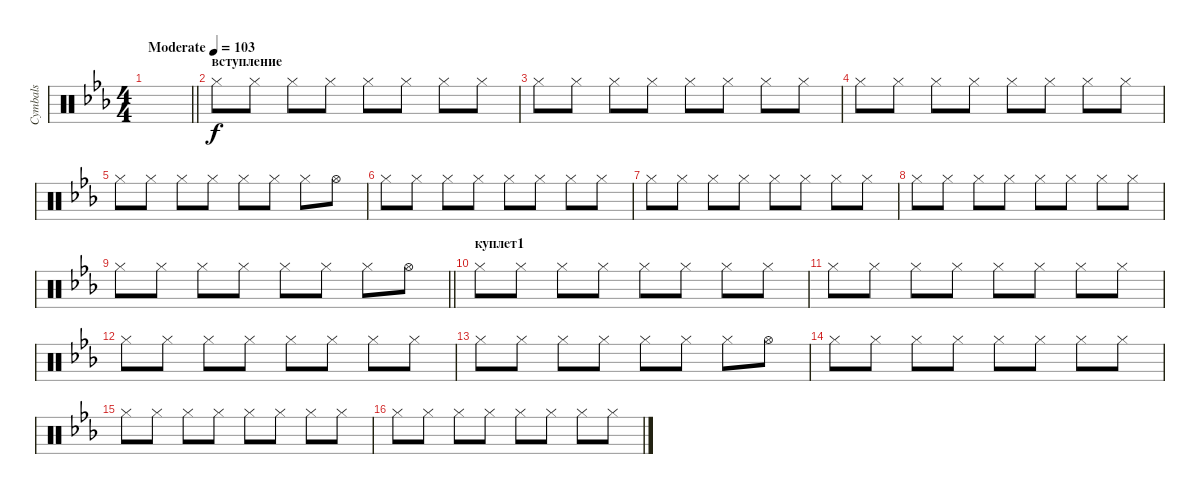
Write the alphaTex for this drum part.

\track ("Cymbals" "Cymbals") {instrument percussion}
\staff {score}
\articulation defaults
\ts (4 4)
\tempo (103 "Moderate")
\clef neutral
\barLineRight lightlight
\ks cminor
|
\section ("" "вступление")
"Hi-Hat (closed)".8 "Hi-Hat (closed)".8 "Hi-Hat (closed)".8 "Hi-Hat (closed)".8 "Hi-Hat (closed)".8 "Hi-Hat (closed)".8 "Hi-Hat (closed)".8 "Hi-Hat (closed)".8 |
"Hi-Hat (closed)".8 "Hi-Hat (closed)".8 "Hi-Hat (closed)".8 "Hi-Hat (closed)".8 "Hi-Hat (closed)".8 "Hi-Hat (closed)".8 "Hi-Hat (closed)".8 "Hi-Hat (closed)".8 |
"Hi-Hat (closed)".8 "Hi-Hat (closed)".8 "Hi-Hat (closed)".8 "Hi-Hat (closed)".8 "Hi-Hat (closed)".8 "Hi-Hat (closed)".8 "Hi-Hat (closed)".8 "Hi-Hat (closed)".8 |
"Hi-Hat (closed)".8 "Hi-Hat (closed)".8 "Hi-Hat (closed)".8 "Hi-Hat (closed)".8 "Hi-Hat (closed)".8 "Hi-Hat (closed)".8 "Hi-Hat (closed)".8 "Hi-Hat (open)".8 |
"Hi-Hat (closed)".8 "Hi-Hat (closed)".8 "Hi-Hat (closed)".8 "Hi-Hat (closed)".8 "Hi-Hat (closed)".8 "Hi-Hat (closed)".8 "Hi-Hat (closed)".8 "Hi-Hat (closed)".8 |
"Hi-Hat (closed)".8 "Hi-Hat (closed)".8 "Hi-Hat (closed)".8 "Hi-Hat (closed)".8 "Hi-Hat (closed)".8 "Hi-Hat (closed)".8 "Hi-Hat (closed)".8 "Hi-Hat (closed)".8 |
"Hi-Hat (closed)".8 "Hi-Hat (closed)".8 "Hi-Hat (closed)".8 "Hi-Hat (closed)".8 "Hi-Hat (closed)".8 "Hi-Hat (closed)".8 "Hi-Hat (closed)".8 "Hi-Hat (closed)".8 |
\barLineRight lightlight "Hi-Hat (closed)".8 "Hi-Hat (closed)".8 "Hi-Hat (closed)".8 "Hi-Hat (closed)".8 "Hi-Hat (closed)".8 "Hi-Hat (closed)".8 "Hi-Hat (closed)".8 "Hi-Hat (open)".8
|
\section ("" "куплет1")
"Hi-Hat (closed)".8 "Hi-Hat (closed)".8 "Hi-Hat (closed)".8 "Hi-Hat (closed)".8 "Hi-Hat (closed)".8 "Hi-Hat (closed)".8 "Hi-Hat (closed)".8 "Hi-Hat (closed)".8 |
"Hi-Hat (closed)".8 "Hi-Hat (closed)".8 "Hi-Hat (closed)".8 "Hi-Hat (closed)".8 "Hi-Hat (closed)".8 "Hi-Hat (closed)".8 "Hi-Hat (closed)".8 "Hi-Hat (closed)".8 |
"Hi-Hat (closed)".8 "Hi-Hat (closed)".8 "Hi-Hat (closed)".8 "Hi-Hat (closed)".8 "Hi-Hat (closed)".8 "Hi-Hat (closed)".8 "Hi-Hat (closed)".8 "Hi-Hat (closed)".8 |
"Hi-Hat (closed)".8 "Hi-Hat (closed)".8 "Hi-Hat (closed)".8 "Hi-Hat (closed)".8 "Hi-Hat (closed)".8 "Hi-Hat (closed)".8 "Hi-Hat (closed)".8 "Hi-Hat (open)".8 |
"Hi-Hat (closed)".8 "Hi-Hat (closed)".8 "Hi-Hat (closed)".8 "Hi-Hat (closed)".8 "Hi-Hat (closed)".8 "Hi-Hat (closed)".8 "Hi-Hat (closed)".8 "Hi-Hat (closed)".8 |
"Hi-Hat (closed)".8 "Hi-Hat (closed)".8 "Hi-Hat (closed)".8 "Hi-Hat (closed)".8 "Hi-Hat (closed)".8 "Hi-Hat (closed)".8 "Hi-Hat (closed)".8 "Hi-Hat (closed)".8 |
"Hi-Hat (closed)".8 "Hi-Hat (closed)".8 "Hi-Hat (closed)".8 "Hi-Hat (closed)".8 "Hi-Hat (closed)".8 "Hi-Hat (closed)".8 "Hi-Hat (closed)".8 "Hi-Hat (closed)".8
